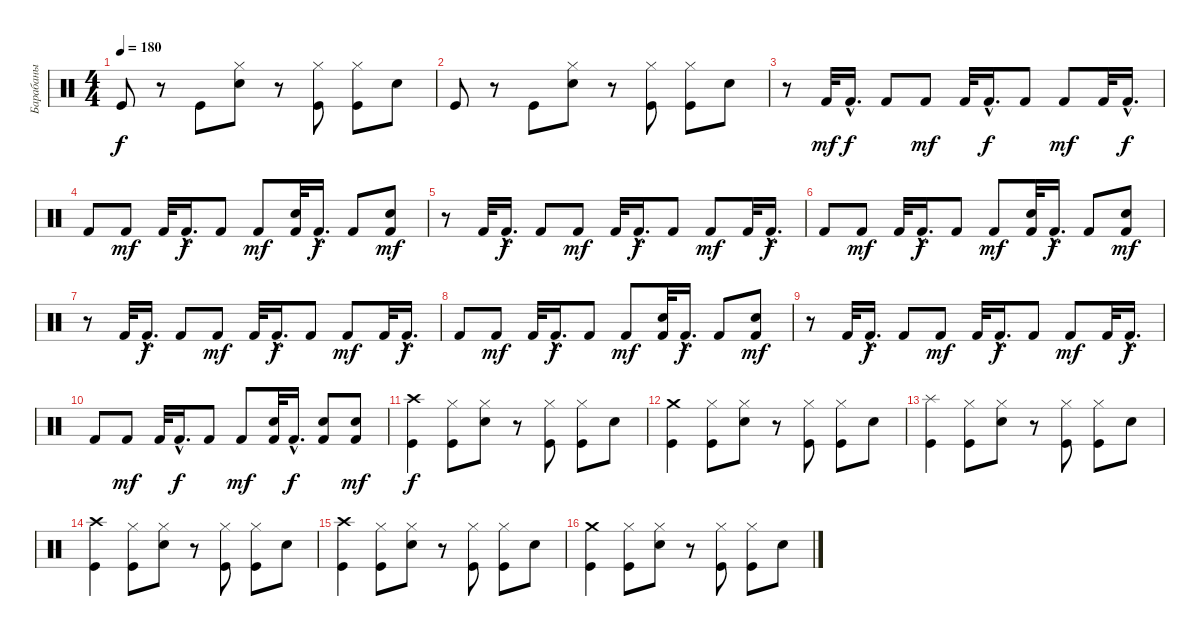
\track ("Барабаны" "Барабаны") {instrument percussion}
\staff {score}
\articulation defaults
\ts (4 4)
\tempo 180
\clef neutral
\ks c "Kick (hit)".8{dy f}
r.8 "Kick (hit)".8 ("Hi-Hat (closed)" "Electric Snare (hit)").8 r.8 ("Kick (hit)" "Hi-Hat (closed)").8 ("Kick (hit)" "Hi-Hat (closed)").8 "Electric Snare (hit)".8 |
"Kick (hit)".8 r.8 "Kick (hit)".8 ("Electric Snare (hit)" "Hi-Hat (closed)").8 r.8 ("Hi-Hat (closed)" "Kick (hit)").8 ("Kick (hit)" "Hi-Hat (closed)").8 "Electric Snare (hit)".8 |
r.8 "Kick (hit) 2".32{dy mf} "Kick (hit) 2"{hac}.16{d dy f} "Kick (hit) 2".8 "Kick (hit) 2".8{dy mf} "Kick (hit) 2".32 "Kick (hit) 2"{hac}.16{d dy f} "Kick (hit) 2".8 "Kick (hit) 2".8{dy mf} "Kick (hit) 2".32 "Kick (hit) 2"{hac}.16{d dy f} |
"Kick (hit) 2".8 "Kick (hit) 2".8{dy mf} "Kick (hit) 2".32 "Kick (hit) 2"{hac}.16{d dy f} "Kick (hit) 2".8 "Kick (hit) 2".8{dy mf} ("Electric Snare (hit)" "Kick (hit) 2").32 "Kick (hit) 2"{hac}.16{d dy f} "Kick (hit) 2".8 ("Electric Snare (hit)" "Kick (hit) 2").8{dy mf} |
r.8 "Kick (hit) 2".32 "Kick (hit) 2"{hac}.16{d dy f} "Kick (hit) 2".8 "Kick (hit) 2".8{dy mf} "Kick (hit) 2".32 "Kick (hit) 2"{hac}.16{d dy f} "Kick (hit) 2".8 "Kick (hit) 2".8{dy mf} "Kick (hit) 2".32 "Kick (hit) 2"{hac}.16{d dy f} |
"Kick (hit) 2".8 "Kick (hit) 2".8{dy mf} "Kick (hit) 2".32 "Kick (hit) 2"{hac}.16{d dy f} "Kick (hit) 2".8 "Kick (hit) 2".8{dy mf} ("Electric Snare (hit)" "Kick (hit) 2").32 "Kick (hit) 2"{hac}.16{d dy f} "Kick (hit) 2".8 ("Kick (hit) 2" "Electric Snare (hit)").8{dy mf} |
r.8 "Kick (hit) 2".32 "Kick (hit) 2"{hac}.16{d dy f} "Kick (hit) 2".8 "Kick (hit) 2".8{dy mf} "Kick (hit) 2".32 "Kick (hit) 2"{hac}.16{d dy f} "Kick (hit) 2".8 "Kick (hit) 2".8{dy mf} "Kick (hit) 2".32 "Kick (hit) 2"{hac}.16{d dy f} |
"Kick (hit) 2".8 "Kick (hit) 2".8{dy mf} "Kick (hit) 2".32 "Kick (hit) 2"{hac}.16{d dy f} "Kick (hit) 2".8 "Kick (hit) 2".8{dy mf} ("Electric Snare (hit)" "Kick (hit) 2").32 "Kick (hit) 2"{hac}.16{d dy f} "Kick (hit) 2".8 ("Electric Snare (hit)" "Kick (hit) 2").8{dy mf} |
r.8 "Kick (hit) 2".32 "Kick (hit) 2"{hac}.16{d dy f} "Kick (hit) 2".8 "Kick (hit) 2".8{dy mf} "Kick (hit) 2".32 "Kick (hit) 2"{hac}.16{d dy f} "Kick (hit) 2".8 "Kick (hit) 2".8{dy mf} "Kick (hit) 2".32 "Kick (hit) 2"{hac}.16{d dy f} |
"Kick (hit) 2".8 "Kick (hit) 2".8{dy mf} "Kick (hit) 2".32 "Kick (hit) 2"{hac}.16{d dy f} "Kick (hit) 2".8 "Kick (hit) 2".8{dy mf} ("Electric Snare (hit)" "Kick (hit) 2").32 "Kick (hit) 2"{hac}.16{d dy f} ("Electric Snare (hit)" "Kick (hit) 2").8 ("Kick (hit) 2" "Electric Snare (hit)").8{dy mf} |
("Kick (hit)" "Crash high (hit)").4{dy f} ("Kick (hit)" "Hi-Hat (closed)").8 ("Hi-Hat (closed)" "Electric Snare (hit)").8 r.8 ("Hi-Hat (closed)" "Kick (hit)").8 ("Kick (hit)" "Hi-Hat (closed)").8 "Electric Snare (hit)".8 |
("Crash medium (hit)" "Kick (hit)").4 ("Hi-Hat (closed)" "Kick (hit)").8 ("Electric Snare (hit)" "Hi-Hat (closed)").8 r.8 ("Hi-Hat (closed)" "Kick (hit)").8 ("Hi-Hat (closed)" "Kick (hit)").8 "Electric Snare (hit)".8 |
("Splash (hit)" "Kick (hit)").4 ("Kick (hit)" "Hi-Hat (closed)").8 ("Hi-Hat (closed)" "Electric Snare (hit)").8 r.8 ("Hi-Hat (closed)" "Kick (hit)").8 ("Kick (hit)" "Hi-Hat (closed)").8 "Electric Snare (hit)".8 |
("Kick (hit)" "Crash high (hit)").4 ("Hi-Hat (closed)" "Kick (hit)").8 ("Electric Snare (hit)" "Hi-Hat (closed)").8 r.8 ("Hi-Hat (closed)" "Kick (hit)").8 ("Hi-Hat (closed)" "Kick (hit)").8 "Electric Snare (hit)".8 |
("Crash high (hit)" "Kick (hit)").4 ("Kick (hit)" "Hi-Hat (closed)").8 ("Hi-Hat (closed)" "Electric Snare (hit)").8 r.8 ("Hi-Hat (closed)" "Kick (hit)").8 ("Kick (hit)" "Hi-Hat (closed)").8 "Electric Snare (hit)".8 |
("Crash medium (hit)" "Kick (hit)").4 ("Kick (hit)" "Hi-Hat (closed)").8 ("Hi-Hat (closed)" "Electric Snare (hit)").8 r.8 ("Hi-Hat (closed)" "Kick (hit)").8 ("Kick (hit)" "Hi-Hat (closed)").8 "Electric Snare (hit)".8
